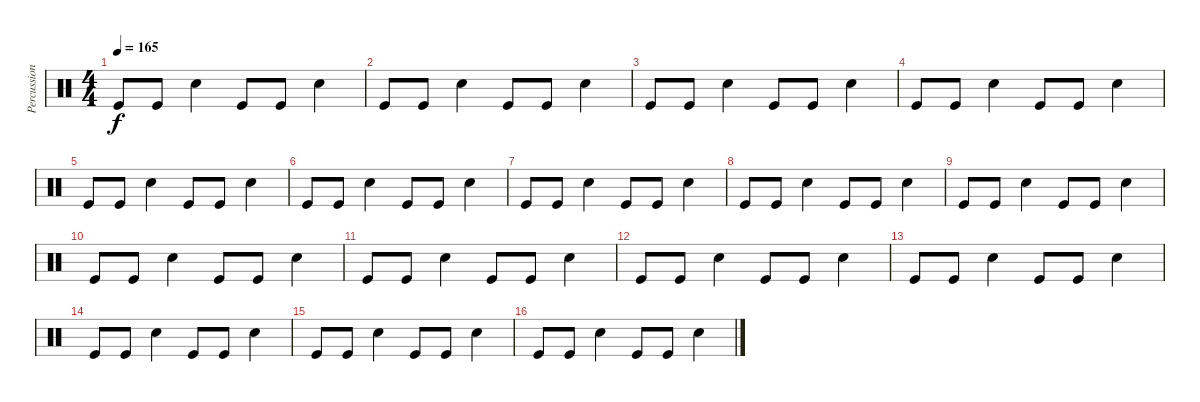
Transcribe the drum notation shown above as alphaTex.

\track ("Percussion" "Percussion") {instrument percussion}
\staff {score}
\articulation defaults
\ts (4 4)
\tempo 165
\clef neutral
\ks c "Kick (hit)".8{dy f} "Kick (hit)".8 "Snare (hit) 2".4 "Kick (hit)".8 "Kick (hit)".8 "Snare (hit) 2".4
|
"Kick (hit)".8 "Kick (hit)".8 "Snare (hit) 2".4 "Kick (hit)".8 "Kick (hit)".8 "Snare (hit) 2".4 |
"Kick (hit)".8 "Kick (hit)".8 "Snare (hit) 2".4 "Kick (hit)".8 "Kick (hit)".8 "Snare (hit) 2".4 |
"Kick (hit)".8 "Kick (hit)".8 "Snare (hit) 2".4 "Kick (hit)".8 "Kick (hit)".8 "Snare (hit) 2".4 |
"Kick (hit)".8 "Kick (hit)".8 "Snare (hit) 2".4 "Kick (hit)".8 "Kick (hit)".8 "Snare (hit) 2".4 |
"Kick (hit)".8 "Kick (hit)".8 "Snare (hit) 2".4 "Kick (hit)".8 "Kick (hit)".8 "Snare (hit) 2".4 |
"Kick (hit)".8 "Kick (hit)".8 "Snare (hit) 2".4 "Kick (hit)".8 "Kick (hit)".8 "Snare (hit) 2".4 |
"Kick (hit)".8 "Kick (hit)".8 "Snare (hit) 2".4 "Kick (hit)".8 "Kick (hit)".8 "Snare (hit) 2".4 |
"Kick (hit)".8 "Kick (hit)".8 "Snare (hit) 2".4 "Kick (hit)".8 "Kick (hit)".8 "Snare (hit) 2".4 |
"Kick (hit)".8 "Kick (hit)".8 "Snare (hit) 2".4 "Kick (hit)".8 "Kick (hit)".8 "Snare (hit) 2".4 |
"Kick (hit)".8 "Kick (hit)".8 "Snare (hit) 2".4 "Kick (hit)".8 "Kick (hit)".8 "Snare (hit) 2".4 |
"Kick (hit)".8 "Kick (hit)".8 "Snare (hit) 2".4 "Kick (hit)".8 "Kick (hit)".8 "Snare (hit) 2".4 |
"Kick (hit)".8 "Kick (hit)".8 "Snare (hit) 2".4 "Kick (hit)".8 "Kick (hit)".8 "Snare (hit) 2".4 |
"Kick (hit)".8 "Kick (hit)".8 "Snare (hit) 2".4 "Kick (hit)".8 "Kick (hit)".8 "Snare (hit) 2".4 |
"Kick (hit)".8 "Kick (hit)".8 "Snare (hit) 2".4 "Kick (hit)".8 "Kick (hit)".8 "Snare (hit) 2".4 |
"Kick (hit)".8 "Kick (hit)".8 "Snare (hit) 2".4 "Kick (hit)".8 "Kick (hit)".8 "Snare (hit) 2".4
